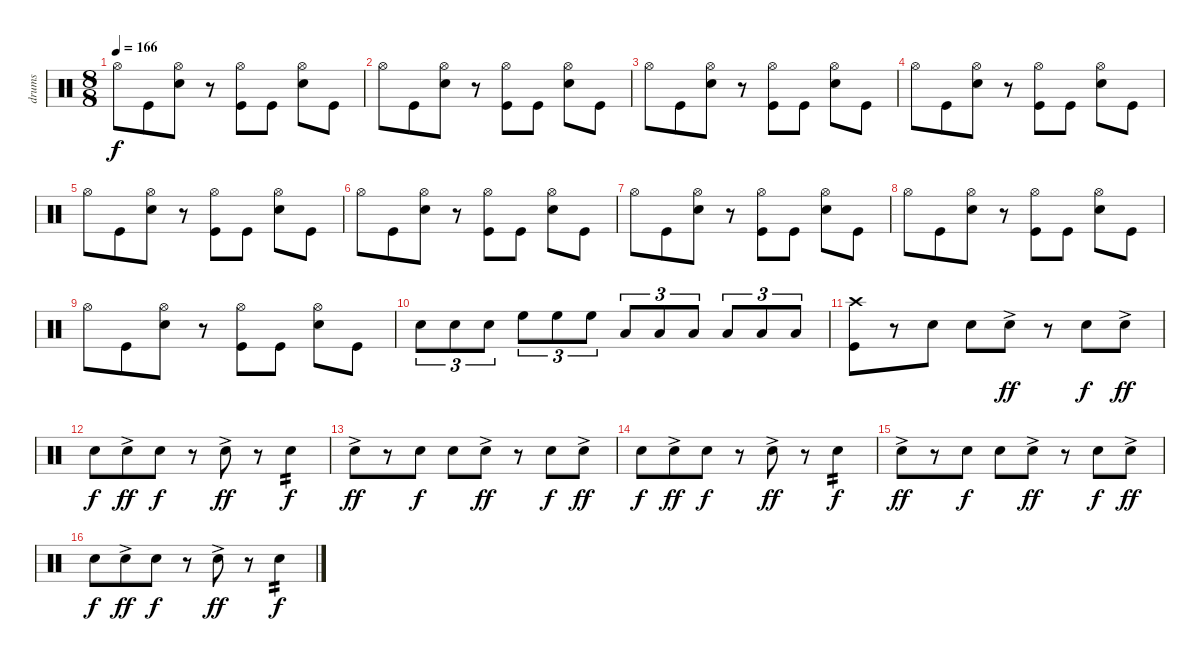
\track ("drums" "drums") {instrument percussion}
\staff {score}
\articulation defaults
\ts (8 8)
\tempo 166
\clef neutral
\ks c "Hi-Hat (open)".8{dy f} "Kick (hit)".8
("Hi-Hat (open)" "Snare (hit) 2").8 r.8 ("Hi-Hat (open)" "Kick (hit)").8 "Kick (hit)".8 ("Hi-Hat (open)" "Snare (hit) 2").8 "Kick (hit)".8 |
"Hi-Hat (open)".8 "Kick (hit)".8 ("Hi-Hat (open)" "Snare (hit) 2").8 r.8 ("Hi-Hat (open)" "Kick (hit)").8 "Kick (hit)".8 ("Hi-Hat (open)" "Snare (hit) 2").8 "Kick (hit)".8 |
"Hi-Hat (open)".8 "Kick (hit)".8 ("Hi-Hat (open)" "Snare (hit) 2").8 r.8 ("Hi-Hat (open)" "Kick (hit)").8 "Kick (hit)".8 ("Hi-Hat (open)" "Snare (hit) 2").8 "Kick (hit)".8 |
"Hi-Hat (open)".8 "Kick (hit)".8 ("Hi-Hat (open)" "Snare (hit) 2").8 r.8 ("Hi-Hat (open)" "Kick (hit)").8 "Kick (hit)".8 ("Hi-Hat (open)" "Snare (hit) 2").8 "Kick (hit)".8 |
"Hi-Hat (open)".8 "Kick (hit)".8 ("Hi-Hat (open)" "Snare (hit) 2").8 r.8 ("Hi-Hat (open)" "Kick (hit)").8 "Kick (hit)".8 ("Hi-Hat (open)" "Snare (hit) 2").8 "Kick (hit)".8 |
"Hi-Hat (open)".8 "Kick (hit)".8 ("Hi-Hat (open)" "Snare (hit) 2").8 r.8 ("Hi-Hat (open)" "Kick (hit)").8 "Kick (hit)".8 ("Hi-Hat (open)" "Snare (hit) 2").8 "Kick (hit)".8 |
"Hi-Hat (open)".8 "Kick (hit)".8 ("Hi-Hat (open)" "Snare (hit) 2").8 r.8 ("Hi-Hat (open)" "Kick (hit)").8 "Kick (hit)".8 ("Hi-Hat (open)" "Snare (hit) 2").8 "Kick (hit)".8 |
"Hi-Hat (open)".8 "Kick (hit)".8 ("Hi-Hat (open)" "Snare (hit) 2").8 r.8 ("Hi-Hat (open)" "Kick (hit)").8 "Kick (hit)".8 ("Hi-Hat (open)" "Snare (hit) 2").8 "Kick (hit)".8 |
"Hi-Hat (open)".8 "Kick (hit)".8 ("Hi-Hat (open)" "Snare (hit) 2").8 r.8 ("Hi-Hat (open)" "Kick (hit)").8 "Kick (hit)".8 ("Hi-Hat (open)" "Snare (hit) 2").8 "Kick (hit)".8 |
"Snare (hit) 2".8{tu (3 2)} "Snare (hit) 2".8{tu (3 2)} "Snare (hit) 2".8{tu (3 2)} "High Floor Tom (hit)".8{tu (3 2)} "High Floor Tom (hit)".8{tu (3 2)} "High Floor Tom (hit)".8{tu (3 2)} "Low Tom (hit)".8{tu (3 2)} "Low Tom (hit)".8{tu (3 2)} "Low Tom (hit)".8{tu (3 2)} "Low Floor Tom (hit)".8{tu (3 2)} "Low Floor Tom (hit)".8{tu (3 2)} "Low Floor Tom (hit)".8{tu (3 2)} |
("Crash high (hit)" "Kick (hit)").8{volume 5} r.8 "Snare (hit) 2".8 "Snare (hit) 2".8 "Snare (hit) 2"{ac}.8{dy ff} r.8 "Snare (hit) 2".8{dy f} "Snare (hit) 2"{ac}.8{dy ff} |
"Snare (hit) 2".8{dy f} "Snare (hit) 2"{ac}.8{dy ff} "Snare (hit) 2".8{dy f} r.8 "Snare (hit) 2"{ac}.8{dy ff} r.8 "Snare (hit) 2".4{tp 2 dy f} |
"Snare (hit) 2"{ac}.8{dy ff} r.8 "Snare (hit) 2".8{dy f} "Snare (hit) 2".8 "Snare (hit) 2"{ac}.8{dy ff} r.8 "Snare (hit) 2".8{dy f} "Snare (hit) 2"{ac}.8{dy ff} |
"Snare (hit) 2".8{dy f} "Snare (hit) 2"{ac}.8{dy ff} "Snare (hit) 2".8{dy f} r.8 "Snare (hit) 2"{ac}.8{dy ff} r.8 "Snare (hit) 2".4{tp 2 dy f} |
"Snare (hit) 2"{ac}.8{dy ff} r.8 "Snare (hit) 2".8{dy f} "Snare (hit) 2".8 "Snare (hit) 2"{ac}.8{dy ff} r.8 "Snare (hit) 2".8{dy f} "Snare (hit) 2"{ac}.8{dy ff} |
"Snare (hit) 2".8{dy f} "Snare (hit) 2"{ac}.8{dy ff} "Snare (hit) 2".8{dy f} r.8 "Snare (hit) 2"{ac}.8{dy ff} r.8 "Snare (hit) 2".4{tp 2 dy f}
